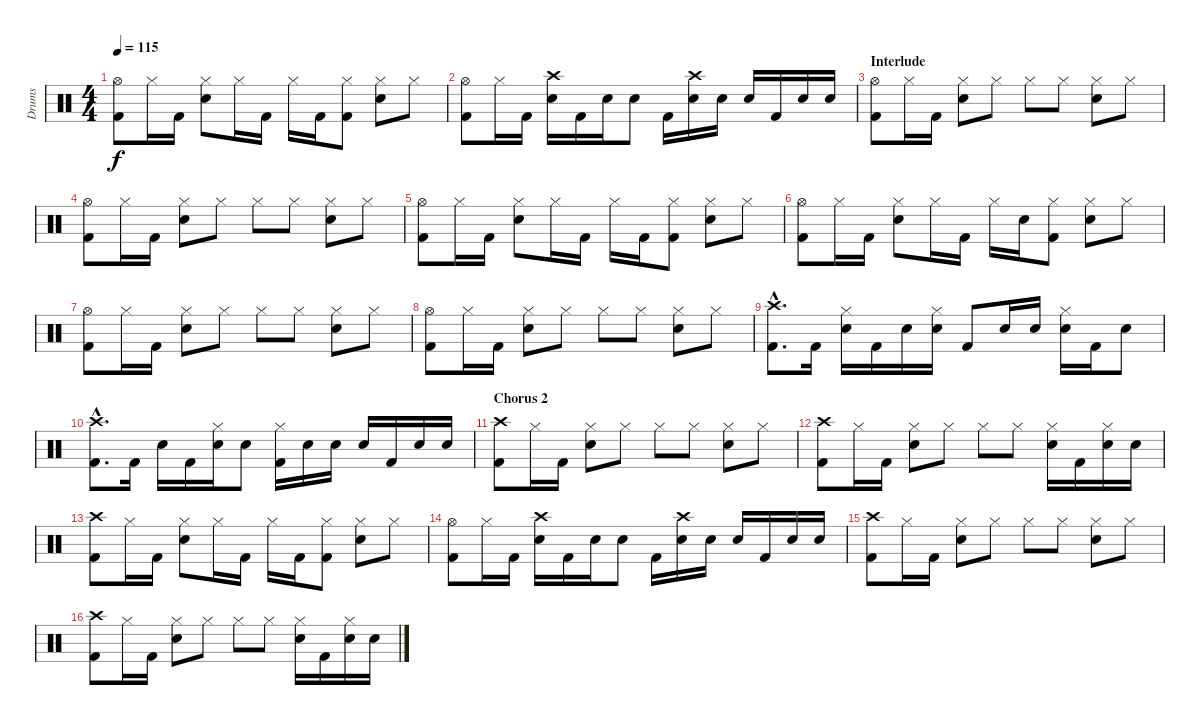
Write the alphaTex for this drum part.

\track ("Drums" "Drums") {instrument percussion}
\staff {score}
\articulation defaults
\ts (4 4)
\tempo 115
\clef neutral
\ks c
("Hi-Hat (open)" "Kick (hit) 2").8{dy f} "Hi-Hat (closed)".16 "Kick (hit) 2".16 ("Hi-Hat (closed)" "Electric Snare (hit)").8 "Hi-Hat (closed)".16 "Kick (hit) 2".16 "Hi-Hat (closed)".16 "Kick (hit) 2".16 ("Hi-Hat (closed)" "Kick (hit) 2").8 ("Hi-Hat (closed)" "Electric Snare (hit)").8 "Hi-Hat (closed)".8 |
("Hi-Hat (open)" "Kick (hit) 2").8 "Hi-Hat (closed)".16 "Kick (hit) 2".16 ("Crash high (hit)" "Electric Snare (hit)").16 "Kick (hit) 2".16 "Electric Snare (hit)".16 "Electric Snare (hit)".8 "Kick (hit) 2".16 ("Crash high (hit)" "Electric Snare (hit)").16 "Electric Snare (hit)".16 "Electric Snare (hit)".16 "Kick (hit) 2".16 "Electric Snare (hit)".16 "Electric Snare (hit)".16 |
\section ("" "Interlude")
("Hi-Hat (open)" "Kick (hit) 2").8 "Hi-Hat (closed)".16 "Kick (hit) 2".16 ("Hi-Hat (closed)" "Electric Snare (hit)").8 "Hi-Hat (closed)".8 "Hi-Hat (closed)".8 "Hi-Hat (closed)".8 ("Hi-Hat (closed)" "Electric Snare (hit)").8 "Hi-Hat (closed)".8 |
("Hi-Hat (open)" "Kick (hit) 2").8 "Hi-Hat (closed)".16 "Kick (hit) 2".16 ("Hi-Hat (closed)" "Electric Snare (hit)").8 "Hi-Hat (closed)".8 "Hi-Hat (closed)".8 "Hi-Hat (closed)".8 ("Hi-Hat (closed)" "Electric Snare (hit)").8 "Hi-Hat (closed)".8 |
("Hi-Hat (open)" "Kick (hit) 2").8 "Hi-Hat (closed)".16 "Kick (hit) 2".16 ("Hi-Hat (closed)" "Electric Snare (hit)").8 "Hi-Hat (closed)".16 "Kick (hit) 2".16 "Hi-Hat (closed)".16 "Kick (hit) 2".16 ("Hi-Hat (closed)" "Kick (hit) 2").8 ("Hi-Hat (closed)" "Electric Snare (hit)").8 "Hi-Hat (closed)".8 |
("Hi-Hat (open)" "Kick (hit) 2").8 "Hi-Hat (closed)".16 "Kick (hit) 2".16 ("Hi-Hat (closed)" "Electric Snare (hit)").8 "Hi-Hat (closed)".16 "Kick (hit) 2".16 "Hi-Hat (closed)".16 "Electric Snare (hit)".16 ("Hi-Hat (closed)" "Kick (hit) 2").8 ("Hi-Hat (closed)" "Electric Snare (hit)").8 "Hi-Hat (closed)".8 |
("Hi-Hat (open)" "Kick (hit) 2").8 "Hi-Hat (closed)".16 "Kick (hit) 2".16 ("Hi-Hat (closed)" "Electric Snare (hit)").8 "Hi-Hat (closed)".8 "Hi-Hat (closed)".8 "Hi-Hat (closed)".8 ("Hi-Hat (closed)" "Electric Snare (hit)").8 "Hi-Hat (closed)".8 |
("Hi-Hat (open)" "Kick (hit) 2").8 "Hi-Hat (closed)".16 "Kick (hit) 2".16 ("Hi-Hat (closed)" "Electric Snare (hit)").8 "Hi-Hat (closed)".8 "Hi-Hat (closed)".8 "Hi-Hat (closed)".8 ("Hi-Hat (closed)" "Electric Snare (hit)").8 "Hi-Hat (closed)".8 |
("Crash high (hit)"{hac} "Kick (hit) 2"{hac}).8{d} "Kick (hit) 2".16 ("Hi-Hat (closed)" "Electric Snare (hit)").16 "Kick (hit) 2".16 "Electric Snare (hit)".16 ("Hi-Hat (closed)" "Electric Snare (hit)").16 "Kick (hit) 2".8 "Electric Snare (hit)".16 "Electric Snare (hit)".16 ("Hi-Hat (closed)" "Electric Snare (hit)").16 "Kick (hit) 2".16 "Electric Snare (hit)".8 |
("Crash high (hit)"{hac} "Kick (hit) 2"{hac}).8{d} "Kick (hit) 2".16 "Electric Snare (hit)".16 "Kick (hit) 2".16 ("Hi-Hat (closed)" "Electric Snare (hit)").16 "Electric Snare (hit)".8 ("Hi-Hat (closed)" "Kick (hit) 2").16 "Electric Snare (hit)".16 "Electric Snare (hit)".16 "Electric Snare (hit)".16 "Kick (hit) 2".16 "Electric Snare (hit)".16 "Electric Snare (hit)".16 |
\section ("" "Chorus 2")
("Crash high (hit)" "Kick (hit) 2").8 "Hi-Hat (closed)".16 "Kick (hit) 2".16 ("Hi-Hat (closed)" "Electric Snare (hit)").8 "Hi-Hat (closed)".8 "Hi-Hat (closed)".8 "Hi-Hat (closed)".8 ("Hi-Hat (closed)" "Electric Snare (hit)").8 "Hi-Hat (closed)".8 |
("Crash high (hit)" "Kick (hit) 2").8 "Hi-Hat (closed)".16 "Kick (hit) 2".16 ("Hi-Hat (closed)" "Electric Snare (hit)").8 "Hi-Hat (closed)".8 "Hi-Hat (closed)".8 "Hi-Hat (closed)".8 ("Hi-Hat (closed)" "Electric Snare (hit)").16 "Kick (hit) 2".16 ("Hi-Hat (closed)" "Electric Snare (hit)").16 "Electric Snare (hit)".16 |
("Crash high (hit)" "Kick (hit) 2").8 "Hi-Hat (closed)".16 "Kick (hit) 2".16 ("Hi-Hat (closed)" "Electric Snare (hit)").8 "Hi-Hat (closed)".16 "Kick (hit) 2".16 "Hi-Hat (closed)".16 "Kick (hit) 2".16 ("Hi-Hat (closed)" "Kick (hit) 2").8 ("Hi-Hat (closed)" "Electric Snare (hit)").8 "Hi-Hat (closed)".8 |
("Hi-Hat (open)" "Kick (hit) 2").8 "Hi-Hat (closed)".16 "Kick (hit) 2".16 ("Crash high (hit)" "Electric Snare (hit)").16 "Kick (hit) 2".16 "Electric Snare (hit)".16 "Electric Snare (hit)".8 "Kick (hit) 2".16 ("Crash high (hit)" "Electric Snare (hit)").16 "Electric Snare (hit)".16 "Electric Snare (hit)".16 "Kick (hit) 2".16 "Electric Snare (hit)".16 "Electric Snare (hit)".16 |
("Crash high (hit)" "Kick (hit) 2").8 "Hi-Hat (closed)".16 "Kick (hit) 2".16 ("Hi-Hat (closed)" "Electric Snare (hit)").8 "Hi-Hat (closed)".8 "Hi-Hat (closed)".8 "Hi-Hat (closed)".8 ("Hi-Hat (closed)" "Electric Snare (hit)").8 "Hi-Hat (closed)".8 |
("Crash high (hit)" "Kick (hit) 2").8 "Hi-Hat (closed)".16 "Kick (hit) 2".16 ("Hi-Hat (closed)" "Electric Snare (hit)").8 "Hi-Hat (closed)".8 "Hi-Hat (closed)".8 "Hi-Hat (closed)".8 ("Hi-Hat (closed)" "Electric Snare (hit)").16 "Kick (hit) 2".16 ("Hi-Hat (closed)" "Electric Snare (hit)").16 "Electric Snare (hit)".16
